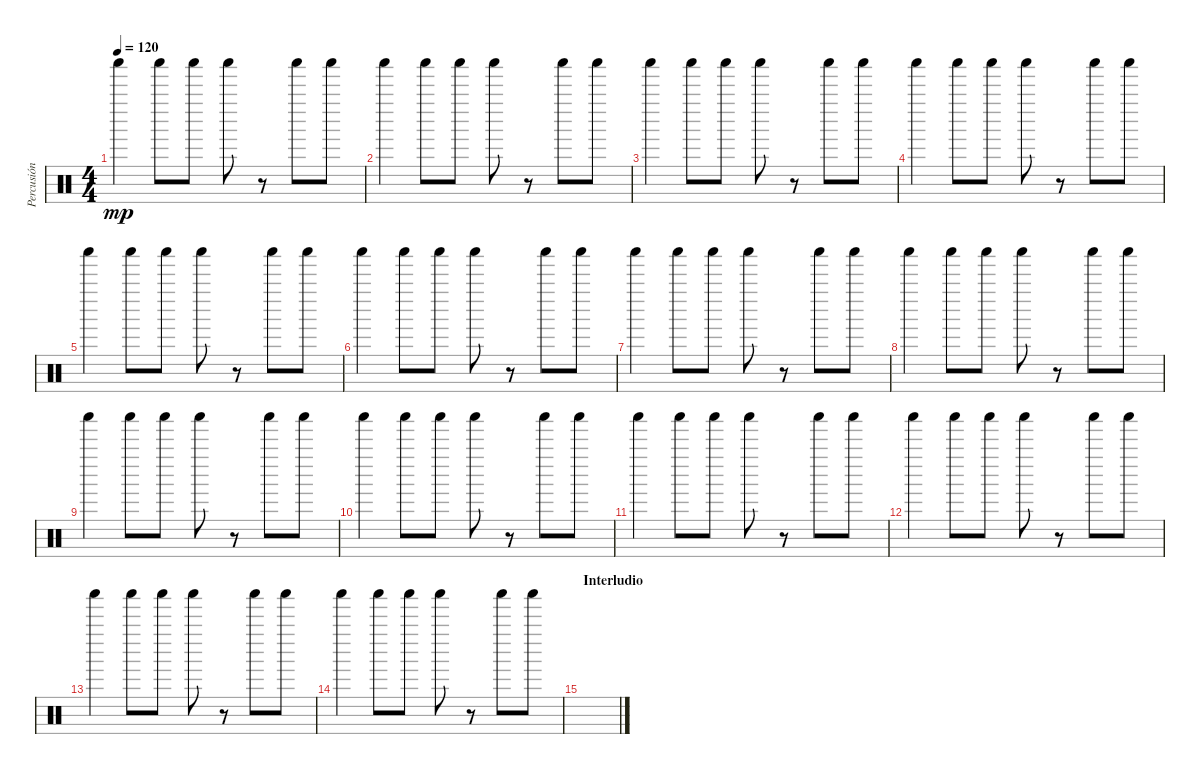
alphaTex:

\track ("Percusión" "Percusión") {instrument percussion}
\staff {score}
\articulation defaults
\ts (4 4)
\tempo 120
\clef neutral
\ks c "Shaker (hit)".4{dy mp} "Shaker (hit)".8 "Shaker (hit)".8 "Shaker (hit)".8
r.8 "Shaker (hit)".8 "Shaker (hit)".8 |
"Shaker (hit)".4 "Shaker (hit)".8 "Shaker (hit)".8 "Shaker (hit)".8 r.8 "Shaker (hit)".8 "Shaker (hit)".8 |
"Shaker (hit)".4 "Shaker (hit)".8 "Shaker (hit)".8 "Shaker (hit)".8 r.8 "Shaker (hit)".8 "Shaker (hit)".8 |
"Shaker (hit)".4 "Shaker (hit)".8 "Shaker (hit)".8 "Shaker (hit)".8 r.8 "Shaker (hit)".8 "Shaker (hit)".8 |
"Shaker (hit)".4 "Shaker (hit)".8 "Shaker (hit)".8 "Shaker (hit)".8 r.8 "Shaker (hit)".8 "Shaker (hit)".8 |
"Shaker (hit)".4 "Shaker (hit)".8 "Shaker (hit)".8 "Shaker (hit)".8 r.8 "Shaker (hit)".8 "Shaker (hit)".8 |
"Shaker (hit)".4 "Shaker (hit)".8 "Shaker (hit)".8 "Shaker (hit)".8 r.8 "Shaker (hit)".8 "Shaker (hit)".8 |
"Shaker (hit)".4 "Shaker (hit)".8 "Shaker (hit)".8 "Shaker (hit)".8 r.8 "Shaker (hit)".8 "Shaker (hit)".8 |
"Shaker (hit)".4 "Shaker (hit)".8 "Shaker (hit)".8 "Shaker (hit)".8 r.8 "Shaker (hit)".8 "Shaker (hit)".8 |
"Shaker (hit)".4 "Shaker (hit)".8 "Shaker (hit)".8 "Shaker (hit)".8 r.8 "Shaker (hit)".8 "Shaker (hit)".8 |
"Shaker (hit)".4 "Shaker (hit)".8 "Shaker (hit)".8 "Shaker (hit)".8 r.8 "Shaker (hit)".8 "Shaker (hit)".8 |
"Shaker (hit)".4 "Shaker (hit)".8 "Shaker (hit)".8 "Shaker (hit)".8 r.8 "Shaker (hit)".8 "Shaker (hit)".8 |
"Shaker (hit)".4 "Shaker (hit)".8 "Shaker (hit)".8 "Shaker (hit)".8 r.8 "Shaker (hit)".8 "Shaker (hit)".8 |
"Shaker (hit)".4 "Shaker (hit)".8 "Shaker (hit)".8 "Shaker (hit)".8 r.8 "Shaker (hit)".8 "Shaker (hit)".8 |
\section ("" "Interludio")
